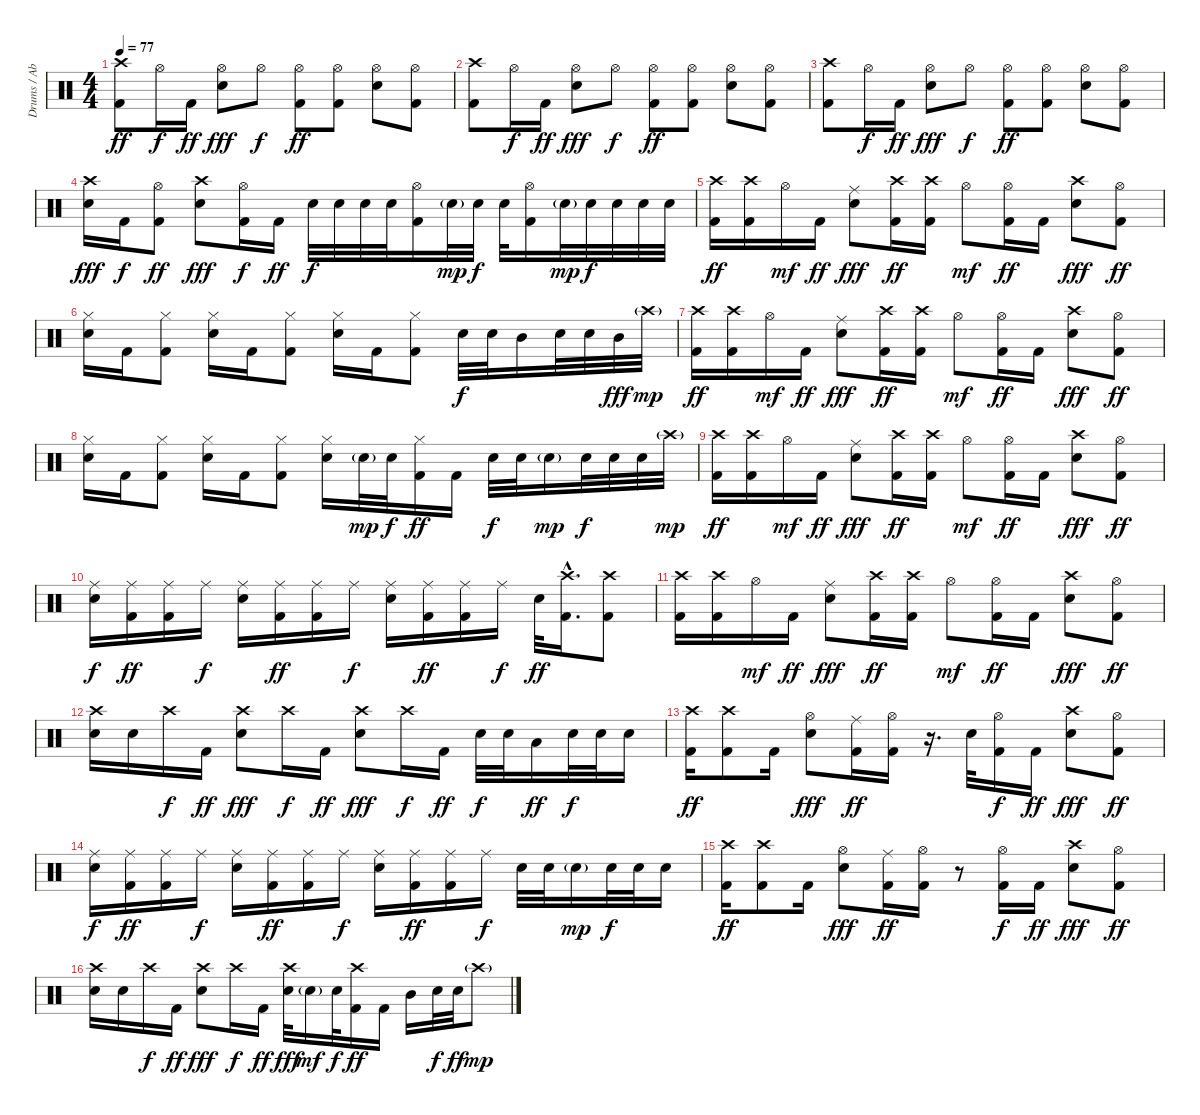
\track ("Drums / Abe Cunningham" "Drums / Ab") {instrument percussion}
\staff {score}
\articulation defaults
\ts (4 4)
\tempo 77
\clef neutral
\ks c
("Crash high (hit)" "Kick (hit) 2").8{dy ff} "Hi-Hat (open)".16{dy f} "Kick (hit) 2".16{dy ff} ("Hi-Hat (open)" "Electric Snare (hit)").8{dy fff} "Hi-Hat (open)".8{dy f} ("Hi-Hat (open)" "Kick (hit) 2").8{dy ff} ("Hi-Hat (open)" "Kick (hit) 2").8 ("Hi-Hat (open)" "Electric Snare (hit)").8 ("Hi-Hat (open)" "Kick (hit) 2").8 |
("Crash high (hit)" "Kick (hit) 2").8 "Hi-Hat (open)".16{dy f} "Kick (hit) 2".16{dy ff} ("Hi-Hat (open)" "Electric Snare (hit)").8{dy fff} "Hi-Hat (open)".8{dy f} ("Hi-Hat (open)" "Kick (hit) 2").8{dy ff} ("Hi-Hat (open)" "Kick (hit) 2").8 ("Hi-Hat (open)" "Electric Snare (hit)").8 ("Hi-Hat (open)" "Kick (hit) 2").8 |
("Crash high (hit)" "Kick (hit) 2").8 "Hi-Hat (open)".16{dy f} "Kick (hit) 2".16{dy ff} ("Hi-Hat (open)" "Electric Snare (hit)").8{dy fff} "Hi-Hat (open)".8{dy f} ("Hi-Hat (open)" "Kick (hit) 2").8{dy ff} ("Hi-Hat (open)" "Kick (hit) 2").8 ("Hi-Hat (open)" "Electric Snare (hit)").8 ("Hi-Hat (open)" "Kick (hit) 2").8 |
("Crash high (hit)" "Electric Snare (hit)").16{dy fff} "Kick (hit) 2".16{dy f} ("Hi-Hat (open)" "Kick (hit) 2").8{dy ff} ("Crash high (hit)" "Electric Snare (hit)").8{dy fff} ("Hi-Hat (open)" "Kick (hit) 2").16{dy f} "Kick (hit) 2".16{dy ff} "Electric Snare (hit)".32{dy f} "Electric Snare (hit)".32 "Electric Snare (hit)".32 "Electric Snare (hit)".32 ("Hi-Hat (open)" "Kick (hit) 2").16 "Electric Snare (hit)"{g}.32{dy mp} "Electric Snare (hit)".32{dy f} "Electric Snare (hit)".32 ("Hi-Hat (open)" "Kick (hit) 2").16 "Electric Snare (hit)"{g}.32{dy mp} "Electric Snare (hit)".32{dy f} "Electric Snare (hit)".32 "Electric Snare (hit)".32 "Electric Snare (hit)".32 |
("Crash high (hit)" "Kick (hit) 2").16{dy ff} ("Crash high (hit)" "Kick (hit) 2").16 "Hi-Hat (open)".16{dy mf} "Kick (hit) 2".16{dy ff} ("Ride (middle)" "Electric Snare (hit)").8{dy fff} ("Crash high (hit)" "Kick (hit) 2").16{dy ff} ("Crash high (hit)" "Kick (hit) 2").16 "Hi-Hat (open)".8{dy mf} ("Hi-Hat (open)" "Kick (hit) 2").16{dy ff} "Kick (hit) 2".16 ("Crash high (hit)" "Electric Snare (hit)").8{dy fff} ("Hi-Hat (open)" "Kick (hit) 2").8{dy ff} |
("Hi-Hat (closed)" "Electric Snare (hit)").16 "Kick (hit) 2".16 ("Hi-Hat (closed)" "Kick (hit) 2").8 ("Hi-Hat (closed)" "Electric Snare (hit)").16 "Kick (hit) 2".16 ("Hi-Hat (closed)" "Kick (hit) 2").8 ("Hi-Hat (closed)" "Electric Snare (hit)").16 "Kick (hit) 2".16 ("Hi-Hat (closed)" "Kick (hit) 2").8 "Electric Snare (hit)".32{dy f} "Electric Snare (hit)".32 "Mid Tom (hit)".16 "Electric Snare (hit)".32 "Electric Snare (hit)".32 "Mid Tom (hit)".32{dy fff} "Crash high (hit)"{g}.32{dy mp} |
("Crash high (hit)" "Kick (hit) 2").16{dy ff} ("Crash high (hit)" "Kick (hit) 2").16 "Hi-Hat (open)".16{dy mf} "Kick (hit) 2".16{dy ff} ("Ride (middle)" "Electric Snare (hit)").8{dy fff} ("Crash high (hit)" "Kick (hit) 2").16{dy ff} ("Crash high (hit)" "Kick (hit) 2").16 "Hi-Hat (open)".8{dy mf} ("Hi-Hat (open)" "Kick (hit) 2").16{dy ff} "Kick (hit) 2".16 ("Crash high (hit)" "Electric Snare (hit)").8{dy fff} ("Hi-Hat (open)" "Kick (hit) 2").8{dy ff} |
("Hi-Hat (closed)" "Electric Snare (hit)").16 "Kick (hit) 2".16 ("Hi-Hat (closed)" "Kick (hit) 2").8 ("Hi-Hat (closed)" "Electric Snare (hit)").16 "Kick (hit) 2".16 ("Hi-Hat (closed)" "Kick (hit) 2").8 ("Hi-Hat (closed)" "Electric Snare (hit)").16 "Electric Snare (hit)"{g}.32{dy mp} "Electric Snare (hit)".32{dy f} ("Hi-Hat (closed)" "Kick (hit) 2").16{dy ff} "Kick (hit) 2".16 "Electric Snare (hit)".32{dy f} "Electric Snare (hit)".32 "Electric Snare (hit)"{g}.16{dy mp} "Electric Snare (hit)".32{dy f} "Electric Snare (hit)".32 "Electric Snare (hit)".32 "Crash high (hit)"{g}.32{dy mp} |
("Crash high (hit)" "Kick (hit) 2").16{dy ff} ("Crash high (hit)" "Kick (hit) 2").16 "Hi-Hat (open)".16{dy mf} "Kick (hit) 2".16{dy ff} ("Ride (middle)" "Electric Snare (hit)").8{dy fff} ("Crash high (hit)" "Kick (hit) 2").16{dy ff} ("Crash high (hit)" "Kick (hit) 2").16 "Hi-Hat (open)".8{dy mf} ("Hi-Hat (open)" "Kick (hit) 2").16{dy ff} "Kick (hit) 2".16 ("Crash high (hit)" "Electric Snare (hit)").8{dy fff} ("Hi-Hat (open)" "Kick (hit) 2").8{dy ff} |
("Ride (middle)" "Electric Snare (hit)").16{dy f} ("Ride (middle)" "Kick (hit) 2").16{dy ff} ("Ride (middle)" "Kick (hit) 2").16 "Ride (middle)".16{dy f} ("Ride (middle)" "Electric Snare (hit)").16 ("Ride (middle)" "Kick (hit) 2").16{dy ff} ("Ride (middle)" "Kick (hit) 2").16 "Ride (middle)".16{dy f} ("Ride (middle)" "Electric Snare (hit)").16 ("Ride (middle)" "Kick (hit) 2").16{dy ff} ("Ride (middle)" "Kick (hit) 2").16 "Ride (middle)".16{dy f} "Electric Snare (hit)".32{dy ff} ("Crash high (hit)"{hac} "Kick (hit) 2"{hac}).16{d} ("Crash high (hit)" "Kick (hit) 2").8 |
("Crash high (hit)" "Kick (hit) 2").16 ("Crash high (hit)" "Kick (hit) 2").16 "Hi-Hat (open)".16{dy mf} "Kick (hit) 2".16{dy ff} ("Ride (middle)" "Electric Snare (hit)").8{dy fff} ("Crash high (hit)" "Kick (hit) 2").16{dy ff} ("Crash high (hit)" "Kick (hit) 2").16 "Hi-Hat (open)".8{dy mf} ("Hi-Hat (open)" "Kick (hit) 2").16{dy ff} "Kick (hit) 2".16 ("Crash high (hit)" "Electric Snare (hit)").8{dy fff} ("Hi-Hat (open)" "Kick (hit) 2").8{dy ff} |
("Crash high (hit)" "Electric Snare (hit)").16 "Electric Snare (hit)".16 "Crash high (hit)".16{dy f} "Kick (hit) 2".16{dy ff} ("Crash high (hit)" "Electric Snare (hit)").8{dy fff} "Crash high (hit)".16{dy f} "Kick (hit) 2".16{dy ff} ("Crash high (hit)" "Electric Snare (hit)").8{dy fff} "Crash high (hit)".16{dy f} "Kick (hit) 2".16{dy ff} "Electric Snare (hit)".32{dy f} "Electric Snare (hit)".32 "Low Tom (hit)".16{dy ff} "Electric Snare (hit)".32{dy f} "Electric Snare (hit)".32 "Electric Snare (hit)".16 |
("Crash high (hit)" "Kick (hit) 2").16{dy ff} ("Crash high (hit)" "Kick (hit) 2").8 "Kick (hit) 2".16 ("Hi-Hat (open)" "Electric Snare (hit)").8{dy fff} ("Ride (middle)" "Kick (hit) 2").16{dy ff} ("Hi-Hat (open)" "Kick (hit) 2").16 r.16{d} "Electric Snare (hit)".32 ("Hi-Hat (open)" "Kick (hit) 2").16{dy f} "Kick (hit) 2".16{dy ff} ("Crash high (hit)" "Electric Snare (hit)").8{dy fff} ("Hi-Hat (open)" "Kick (hit) 2").8{dy ff} |
("Ride (middle)" "Electric Snare (hit)").16{dy f} ("Ride (middle)" "Kick (hit) 2").16{dy ff} ("Ride (middle)" "Kick (hit) 2").16 "Ride (middle)".16{dy f} ("Ride (middle)" "Electric Snare (hit)").16 ("Ride (middle)" "Kick (hit) 2").16{dy ff} ("Ride (middle)" "Kick (hit) 2").16 "Ride (middle)".16{dy f} ("Ride (middle)" "Electric Snare (hit)").16 ("Ride (middle)" "Kick (hit) 2").16{dy ff} ("Ride (middle)" "Kick (hit) 2").16 "Ride (middle)".16{dy f} "Electric Snare (hit)".32 "Electric Snare (hit)".32 "Electric Snare (hit)"{g}.16{dy mp} "Electric Snare (hit)".32{dy f} "Electric Snare (hit)".32 "Electric Snare (hit)".16 |
("Crash high (hit)" "Kick (hit) 2").16{dy ff} ("Crash high (hit)" "Kick (hit) 2").8 "Kick (hit) 2".16 ("Hi-Hat (open)" "Electric Snare (hit)").8{dy fff} ("Ride (middle)" "Kick (hit) 2").16{dy ff} ("Hi-Hat (open)" "Kick (hit) 2").16 r.8 ("Hi-Hat (open)" "Kick (hit) 2").16{dy f} "Kick (hit) 2".16{dy ff} ("Crash high (hit)" "Electric Snare (hit)").8{dy fff} ("Hi-Hat (open)" "Kick (hit) 2").8{dy ff} |
("Crash high (hit)" "Electric Snare (hit)").16 "Electric Snare (hit)".16 "Crash high (hit)".16{dy f} "Kick (hit) 2".16{dy ff} ("Crash high (hit)" "Electric Snare (hit)").8{dy fff} "Crash high (hit)".16{dy f} "Kick (hit) 2".16{dy ff} ("Crash high (hit)" "Electric Snare (hit)").32{dy fff} "Electric Snare (hit)"{g}.16{dy mf} "Electric Snare (hit)".32{dy f} ("Crash high (hit)" "Kick (hit) 2").16{dy ff} "Kick (hit) 2".16 "Mid Tom (hit)".16 "Electric Snare (hit)".32{dy f} "Electric Snare (hit)".32{dy ff} "Crash high (hit)"{g}.8{dy mp}
